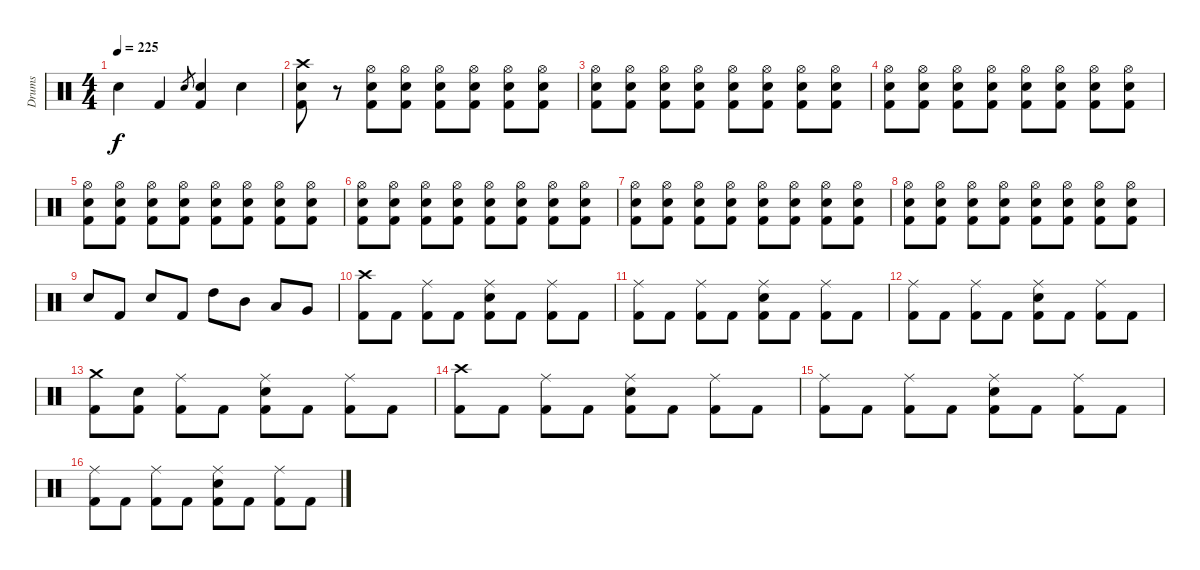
\track ("Drums" "Drums") {instrument percussion}
\staff {score}
\articulation defaults
\ts (4 4)
\tempo 225
\clef neutral
\ks c "Electric Snare (hit)".4{dy f} "Kick (hit) 2".4 "Electric Snare (hit)".8{gr}
("Electric Snare (hit)" "Kick (hit) 2").4 "Electric Snare (hit)".4 |
("Crash high (hit)" "Electric Snare (hit)" "Kick (hit) 2").8 r.8 ("Hi-Hat (open)" "Electric Snare (hit)" "Kick (hit) 2").8 ("Hi-Hat (open)" "Electric Snare (hit)" "Kick (hit) 2").8 ("Hi-Hat (open)" "Electric Snare (hit)" "Kick (hit) 2").8 ("Hi-Hat (open)" "Electric Snare (hit)" "Kick (hit) 2").8 ("Hi-Hat (open)" "Electric Snare (hit)" "Kick (hit) 2").8 ("Hi-Hat (open)" "Electric Snare (hit)" "Kick (hit) 2").8 |
("Hi-Hat (open)" "Electric Snare (hit)" "Kick (hit) 2").8 ("Hi-Hat (open)" "Electric Snare (hit)" "Kick (hit) 2").8 ("Hi-Hat (open)" "Electric Snare (hit)" "Kick (hit) 2").8 ("Hi-Hat (open)" "Electric Snare (hit)" "Kick (hit) 2").8 ("Hi-Hat (open)" "Electric Snare (hit)" "Kick (hit) 2").8 ("Hi-Hat (open)" "Electric Snare (hit)" "Kick (hit) 2").8 ("Hi-Hat (open)" "Electric Snare (hit)" "Kick (hit) 2").8 ("Hi-Hat (open)" "Electric Snare (hit)" "Kick (hit) 2").8 |
("Hi-Hat (open)" "Electric Snare (hit)" "Kick (hit) 2").8 ("Hi-Hat (open)" "Electric Snare (hit)" "Kick (hit) 2").8 ("Hi-Hat (open)" "Electric Snare (hit)" "Kick (hit) 2").8 ("Hi-Hat (open)" "Electric Snare (hit)" "Kick (hit) 2").8 ("Hi-Hat (open)" "Electric Snare (hit)" "Kick (hit) 2").8 ("Hi-Hat (open)" "Electric Snare (hit)" "Kick (hit) 2").8 ("Hi-Hat (open)" "Electric Snare (hit)" "Kick (hit) 2").8 ("Hi-Hat (open)" "Electric Snare (hit)" "Kick (hit) 2").8 |
("Hi-Hat (open)" "Electric Snare (hit)" "Kick (hit) 2").8 ("Hi-Hat (open)" "Electric Snare (hit)" "Kick (hit) 2").8 ("Hi-Hat (open)" "Electric Snare (hit)" "Kick (hit) 2").8 ("Hi-Hat (open)" "Electric Snare (hit)" "Kick (hit) 2").8 ("Hi-Hat (open)" "Electric Snare (hit)" "Kick (hit) 2").8 ("Hi-Hat (open)" "Electric Snare (hit)" "Kick (hit) 2").8 ("Hi-Hat (open)" "Electric Snare (hit)" "Kick (hit) 2").8 ("Hi-Hat (open)" "Electric Snare (hit)" "Kick (hit) 2").8 |
("Hi-Hat (open)" "Electric Snare (hit)" "Kick (hit) 2").8 ("Hi-Hat (open)" "Electric Snare (hit)" "Kick (hit) 2").8 ("Hi-Hat (open)" "Electric Snare (hit)" "Kick (hit) 2").8 ("Hi-Hat (open)" "Electric Snare (hit)" "Kick (hit) 2").8 ("Hi-Hat (open)" "Electric Snare (hit)" "Kick (hit) 2").8 ("Hi-Hat (open)" "Electric Snare (hit)" "Kick (hit) 2").8 ("Hi-Hat (open)" "Electric Snare (hit)" "Kick (hit) 2").8 ("Hi-Hat (open)" "Electric Snare (hit)" "Kick (hit) 2").8 |
("Hi-Hat (open)" "Electric Snare (hit)" "Kick (hit) 2").8 ("Hi-Hat (open)" "Electric Snare (hit)" "Kick (hit) 2").8 ("Hi-Hat (open)" "Electric Snare (hit)" "Kick (hit) 2").8 ("Hi-Hat (open)" "Electric Snare (hit)" "Kick (hit) 2").8 ("Hi-Hat (open)" "Electric Snare (hit)" "Kick (hit) 2").8 ("Hi-Hat (open)" "Electric Snare (hit)" "Kick (hit) 2").8 ("Hi-Hat (open)" "Electric Snare (hit)" "Kick (hit) 2").8 ("Hi-Hat (open)" "Electric Snare (hit)" "Kick (hit) 2").8 |
("Hi-Hat (open)" "Electric Snare (hit)" "Kick (hit) 2").8 ("Hi-Hat (open)" "Electric Snare (hit)" "Kick (hit) 2").8 ("Hi-Hat (open)" "Electric Snare (hit)" "Kick (hit) 2").8 ("Hi-Hat (open)" "Electric Snare (hit)" "Kick (hit) 2").8 ("Hi-Hat (open)" "Electric Snare (hit)" "Kick (hit) 2").8 ("Hi-Hat (open)" "Electric Snare (hit)" "Kick (hit) 2").8 ("Hi-Hat (open)" "Electric Snare (hit)" "Kick (hit) 2").8 ("Hi-Hat (open)" "Electric Snare (hit)" "Kick (hit) 2").8 |
"Electric Snare (hit)".8 "Kick (hit) 2".8 "Electric Snare (hit)".8 "Kick (hit) 2".8 "High Tom (hit)".8 "Mid Tom (hit)".8 "Low Tom (hit)".8 "Very Low Tom (hit)".8 |
("Crash high (hit)" "Kick (hit) 2").8 "Kick (hit) 2".8 ("Ride (middle)" "Kick (hit) 2").8 "Kick (hit) 2".8 ("Ride (middle)" "Electric Snare (hit)" "Kick (hit) 2").8 "Kick (hit) 2".8 ("Ride (middle)" "Kick (hit) 2").8 "Kick (hit) 2".8 |
("Ride (middle)" "Kick (hit) 2").8 "Kick (hit) 2".8 ("Ride (middle)" "Kick (hit) 2").8 "Kick (hit) 2".8 ("Ride (middle)" "Electric Snare (hit)" "Kick (hit) 2").8 "Kick (hit) 2".8 ("Ride (middle)" "Kick (hit) 2").8 "Kick (hit) 2".8 |
("Ride (middle)" "Kick (hit) 2").8 "Kick (hit) 2".8 ("Ride (middle)" "Kick (hit) 2").8 "Kick (hit) 2".8 ("Ride (middle)" "Electric Snare (hit)" "Kick (hit) 2").8 "Kick (hit) 2".8 ("Ride (middle)" "Kick (hit) 2").8 "Kick (hit) 2".8 |
("Crash medium (hit)" "Kick (hit) 2").8 ("Electric Snare (hit)" "Kick (hit) 2").8 ("Ride (middle)" "Kick (hit) 2").8 "Kick (hit) 2".8 ("Ride (middle)" "Electric Snare (hit)" "Kick (hit) 2").8 "Kick (hit) 2".8 ("Ride (middle)" "Kick (hit) 2").8 "Kick (hit) 2".8 |
("Crash high (hit)" "Kick (hit) 2").8 "Kick (hit) 2".8 ("Ride (middle)" "Kick (hit) 2").8 "Kick (hit) 2".8 ("Ride (middle)" "Electric Snare (hit)" "Kick (hit) 2").8 "Kick (hit) 2".8 ("Ride (middle)" "Kick (hit) 2").8 "Kick (hit) 2".8 |
("Ride (middle)" "Kick (hit) 2").8 "Kick (hit) 2".8 ("Ride (middle)" "Kick (hit) 2").8 "Kick (hit) 2".8 ("Ride (middle)" "Electric Snare (hit)" "Kick (hit) 2").8 "Kick (hit) 2".8 ("Ride (middle)" "Kick (hit) 2").8 "Kick (hit) 2".8 |
("Ride (middle)" "Kick (hit) 2").8 "Kick (hit) 2".8 ("Ride (middle)" "Kick (hit) 2").8 "Kick (hit) 2".8 ("Ride (middle)" "Electric Snare (hit)" "Kick (hit) 2").8 "Kick (hit) 2".8 ("Ride (middle)" "Kick (hit) 2").8 "Kick (hit) 2".8
